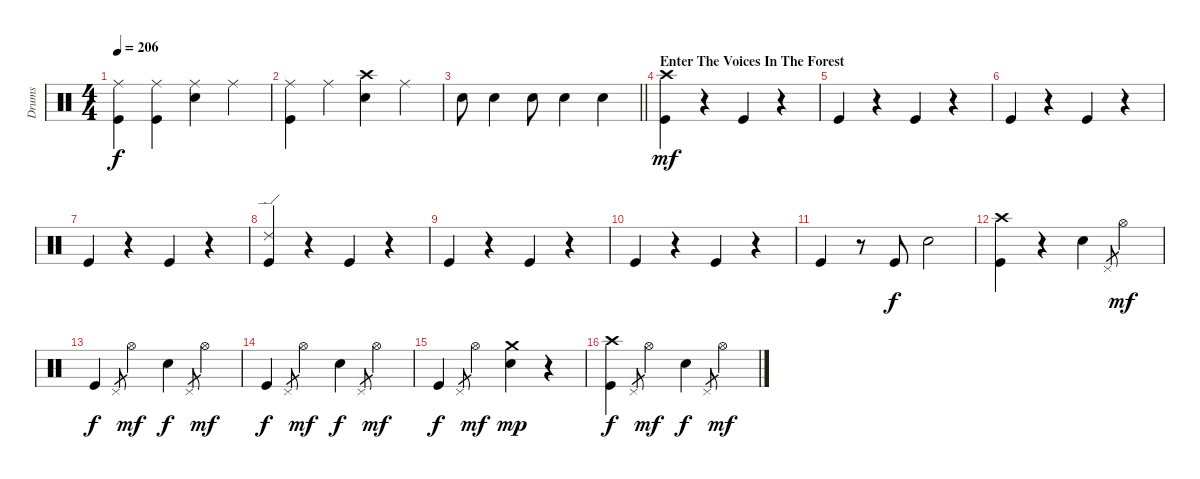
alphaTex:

\track ("Drums" "Drums") {instrument percussion}
\staff {score}
\articulation defaults
\ts (4 4)
\tempo 206
\clef neutral
\ks c
("Ride (middle)" "Kick (hit)").4{dy f} ("Ride (middle)" "Kick (hit)").4 ("Ride (middle)" "Electric Snare (hit)").4 "Ride (middle)".4 |
("Ride (middle)" "Kick (hit)").4 "Ride (middle)".4 ("Crash high (hit)" "Electric Snare (hit)").4 "Ride (middle)".4 |
\barLineRight lightlight "Electric Snare (hit)".8 "Electric Snare (hit)".4 "Electric Snare (hit)".8 "Electric Snare (hit)".4 "Electric Snare (hit)".4
|
\section ("" "Enter The Voices In The Forest")
("Crash high (hit)" "Kick (hit)").4{dy mf} r.4 "Kick (hit)".4 r.4 |
"Kick (hit)".4 r.4 "Kick (hit)".4 r.4 |
"Kick (hit)".4 r.4 "Kick (hit)".4 r.4 |
"Kick (hit)".4 r.4 "Kick (hit)".4 r.4 |
("Ride (edge) 2" "Kick (hit)").4 r.4 "Kick (hit)".4 r.4 |
"Kick (hit)".4 r.4 "Kick (hit)".4 r.4 |
"Kick (hit)".4 r.4 "Kick (hit)".4 r.4 |
"Kick (hit)".4 r.8 "Kick (hit)".8{dy f} "Electric Snare (hit)".2 |
("Crash high (hit)" "Kick (hit)").4 r.4 "Electric Snare (hit)".4 "Pedal Hi-Hat (hit)".8{gr} "Hi-Hat (open)".4{dy mf} |
"Kick (hit)".4{dy f} "Pedal Hi-Hat (hit)".8{gr} "Hi-Hat (open)".4{dy mf} "Electric Snare (hit)".4{dy f} "Pedal Hi-Hat (hit)".8{gr} "Hi-Hat (open)".4{dy mf} |
"Kick (hit)".4{dy f} "Pedal Hi-Hat (hit)".8{gr} "Hi-Hat (open)".4{dy mf} "Electric Snare (hit)".4{dy f} "Pedal Hi-Hat (hit)".8{gr} "Hi-Hat (open)".4{dy mf} |
"Kick (hit)".4{dy f} "Pedal Hi-Hat (hit)".8{gr} "Hi-Hat (open)".4{dy mf} ("Crash medium (hit)" "Electric Snare (hit)").4{dy mp} r.4 |
("Crash high (hit)" "Kick (hit)").4{dy f} "Pedal Hi-Hat (hit)".8{gr} "Hi-Hat (open)".4{dy mf} "Electric Snare (hit)".4{dy f} "Pedal Hi-Hat (hit)".8{gr} "Hi-Hat (open)".4{dy mf}
